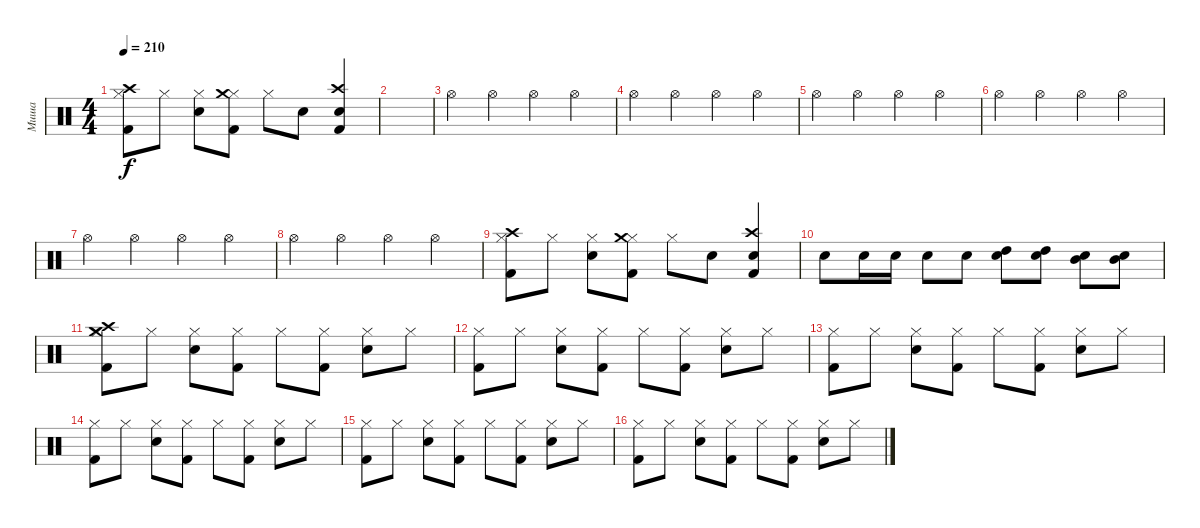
\track ("Миша" "Миша") {instrument percussion}
\staff {score}
\articulation defaults
\ts (4 4)
\tempo 210
\clef neutral
\ks c
("Hi-Hat (closed)" "Kick (hit) 2" "Crash high (hit)").8{dy f} "Hi-Hat (closed)".8 ("Hi-Hat (closed)" "Snare (hit) 2").8 ("Hi-Hat (closed)" "Kick (hit) 2" "Crash medium (hit)").8 "Hi-Hat (closed)".8 "Snare (hit) 2".8 ("Kick (hit) 2" "Snare (hit) 2" "Crash high (hit)").4 |
|
"Hi-Hat (open)".4 "Hi-Hat (open)".4 "Hi-Hat (open)".4 "Hi-Hat (open)".4 |
"Hi-Hat (open)".4 "Hi-Hat (open)".4 "Hi-Hat (open)".4 "Hi-Hat (open)".4 |
"Hi-Hat (open)".4 "Hi-Hat (open)".4 "Hi-Hat (open)".4 "Hi-Hat (open)".4 |
"Hi-Hat (open)".4 "Hi-Hat (open)".4 "Hi-Hat (open)".4 "Hi-Hat (open)".4 |
"Hi-Hat (open)".4 "Hi-Hat (open)".4 "Hi-Hat (open)".4 "Hi-Hat (open)".4 |
"Hi-Hat (open)".4 "Hi-Hat (open)".4 "Hi-Hat (open)".4 "Hi-Hat (open)".4 |
("Hi-Hat (closed)" "Kick (hit) 2" "Crash high (hit)").8 "Hi-Hat (closed)".8 ("Hi-Hat (closed)" "Snare (hit) 2").8 ("Hi-Hat (closed)" "Kick (hit) 2" "Crash medium (hit)").8 "Hi-Hat (closed)".8 "Snare (hit) 2".8 ("Kick (hit) 2" "Snare (hit) 2" "Crash high (hit)").4 |
"Snare (hit) 2".8 "Snare (hit) 2".16 "Snare (hit) 2".16 "Snare (hit) 2".8 "Snare (hit) 2".8 ("Snare (hit) 2" "High Tom (hit)").8 ("Snare (hit) 2" "High Tom (hit)").8 ("Snare (hit) 2" "Mid Tom (hit)").8 ("Snare (hit) 2" "Mid Tom (hit)").8 |
("Hi-Hat (closed)" "Kick (hit) 2" "Crash medium (hit)" "Crash high (hit)").8 "Hi-Hat (closed)".8 ("Hi-Hat (closed)" "Snare (hit) 2").8 ("Hi-Hat (closed)" "Kick (hit) 2").8 "Hi-Hat (closed)".8 ("Hi-Hat (closed)" "Kick (hit) 2").8 ("Hi-Hat (closed)" "Snare (hit) 2").8 "Hi-Hat (closed)".8 |
("Hi-Hat (closed)" "Kick (hit) 2").8 "Hi-Hat (closed)".8 ("Hi-Hat (closed)" "Snare (hit) 2").8 ("Hi-Hat (closed)" "Kick (hit) 2").8 "Hi-Hat (closed)".8 ("Hi-Hat (closed)" "Kick (hit) 2").8 ("Hi-Hat (closed)" "Snare (hit) 2").8 "Hi-Hat (closed)".8 |
("Hi-Hat (closed)" "Kick (hit) 2").8 "Hi-Hat (closed)".8 ("Hi-Hat (closed)" "Snare (hit) 2").8 ("Hi-Hat (closed)" "Kick (hit) 2").8 "Hi-Hat (closed)".8 ("Hi-Hat (closed)" "Kick (hit) 2").8 ("Hi-Hat (closed)" "Snare (hit) 2").8 "Hi-Hat (closed)".8 |
("Hi-Hat (closed)" "Kick (hit) 2").8 "Hi-Hat (closed)".8 ("Hi-Hat (closed)" "Snare (hit) 2").8 ("Hi-Hat (closed)" "Kick (hit) 2").8 "Hi-Hat (closed)".8 ("Hi-Hat (closed)" "Kick (hit) 2").8 ("Hi-Hat (closed)" "Snare (hit) 2").8 "Hi-Hat (closed)".8 |
("Hi-Hat (closed)" "Kick (hit) 2").8 "Hi-Hat (closed)".8 ("Hi-Hat (closed)" "Snare (hit) 2").8 ("Hi-Hat (closed)" "Kick (hit) 2").8 "Hi-Hat (closed)".8 ("Hi-Hat (closed)" "Kick (hit) 2").8 ("Hi-Hat (closed)" "Snare (hit) 2").8 "Hi-Hat (closed)".8 |
("Hi-Hat (closed)" "Kick (hit) 2").8 "Hi-Hat (closed)".8 ("Hi-Hat (closed)" "Snare (hit) 2").8 ("Hi-Hat (closed)" "Kick (hit) 2").8 "Hi-Hat (closed)".8 ("Hi-Hat (closed)" "Kick (hit) 2").8 ("Hi-Hat (closed)" "Snare (hit) 2").8 "Hi-Hat (closed)".8
